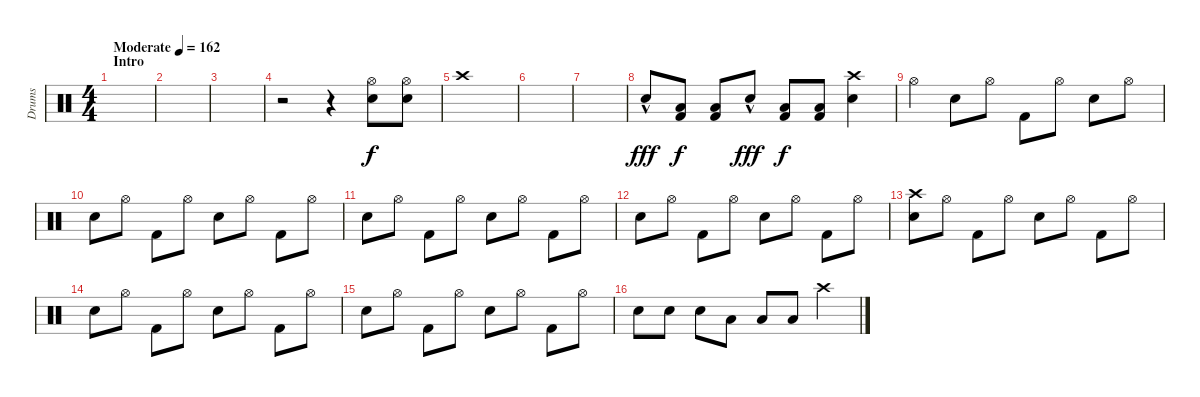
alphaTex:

\track ("Drums" "Drums") {instrument percussion}
\staff {score}
\articulation defaults
\ts (4 4)
\section ("" "Intro")
\tempo (162 "Moderate")
\clef neutral
\ks c
|
|
|
r.2 r.4 ("Hi-Hat (open)" "Electric Snare (hit)").8 ("Hi-Hat (open)" "Electric Snare (hit)").8 |
"Crash high (hit)".1 |
|
|
"Electric Snare (hit)"{hac}.8{dy fff} ("Low Tom (hit)" "Kick (hit) 2").8{dy f} ("Low Tom (hit)" "Kick (hit) 2").8 "Electric Snare (hit)"{hac}.8{dy fff} ("Low Tom (hit)" "Kick (hit) 2").8{dy f} ("Low Tom (hit)" "Kick (hit) 2").8 ("Crash high (hit)" "Electric Snare (hit)").4 |
"Hi-Hat (open)".4 "Electric Snare (hit)".8 "Hi-Hat (open)".8 "Kick (hit) 2".8 "Hi-Hat (open)".8 "Electric Snare (hit)".8 "Hi-Hat (open)".8 |
"Electric Snare (hit)".8 "Hi-Hat (open)".8 "Kick (hit) 2".8 "Hi-Hat (open)".8 "Electric Snare (hit)".8 "Hi-Hat (open)".8 "Kick (hit) 2".8 "Hi-Hat (open)".8 |
"Electric Snare (hit)".8 "Hi-Hat (open)".8 "Kick (hit) 2".8 "Hi-Hat (open)".8 "Electric Snare (hit)".8 "Hi-Hat (open)".8 "Kick (hit) 2".8 "Hi-Hat (open)".8 |
"Electric Snare (hit)".8 "Hi-Hat (open)".8 "Kick (hit) 2".8 "Hi-Hat (open)".8 "Electric Snare (hit)".8 "Hi-Hat (open)".8 "Kick (hit) 2".8 "Hi-Hat (open)".8 |
("Crash high (hit)" "Electric Snare (hit)").8 "Hi-Hat (open)".8 "Kick (hit) 2".8 "Hi-Hat (open)".8 "Electric Snare (hit)".8 "Hi-Hat (open)".8 "Kick (hit) 2".8 "Hi-Hat (open)".8 |
"Electric Snare (hit)".8 "Hi-Hat (open)".8 "Kick (hit) 2".8 "Hi-Hat (open)".8 "Electric Snare (hit)".8 "Hi-Hat (open)".8 "Kick (hit) 2".8 "Hi-Hat (open)".8 |
"Electric Snare (hit)".8 "Hi-Hat (open)".8 "Kick (hit) 2".8 "Hi-Hat (open)".8 "Electric Snare (hit)".8 "Hi-Hat (open)".8 "Kick (hit) 2".8 "Hi-Hat (open)".8 |
"Electric Snare (hit)".8 "Electric Snare (hit)".8 "Electric Snare (hit)".8 "Low Tom (hit)".8 "Low Tom (hit)".8 "Low Tom (hit)".8 "Crash high (hit)".4
